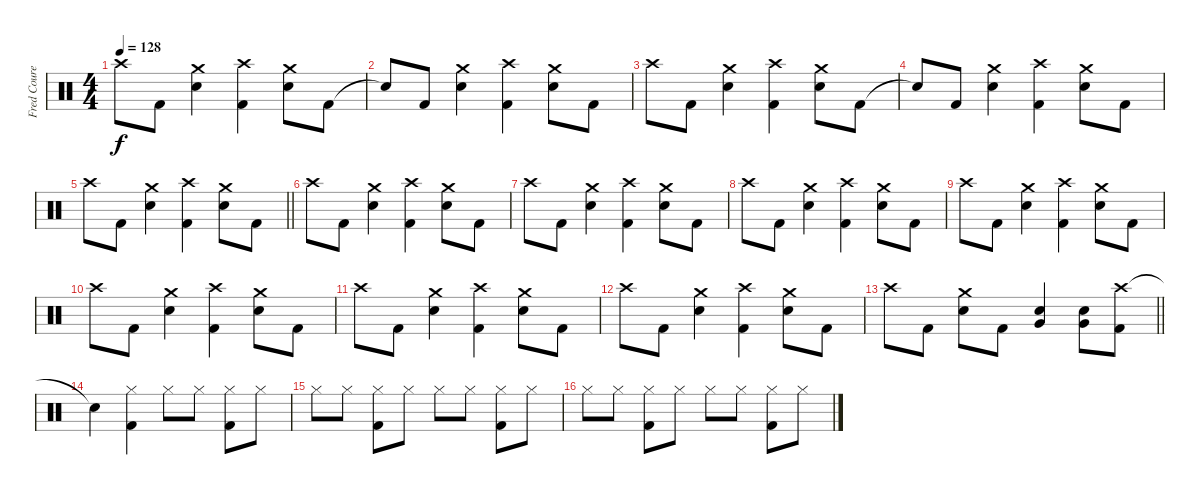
\track ("Fred Courey" "Fred Coure") {instrument percussion}
\staff {score}
\articulation defaults
\ts (4 4)
\tempo 128
\clef neutral
\ks c "Crash high (hit)".8{dy f} "Kick (hit) 2".8
("Crash medium (hit)" "Snare (hit) 2").4 ("Crash high (hit)" "Kick (hit) 2").4 ("Crash medium (hit)" "Snare (hit) 2").8 "Kick (hit) 2".8 |
"Snare (hit)"{t}.8 "Kick (hit) 2".8 ("Crash medium (hit)" "Snare (hit) 2").4 ("Crash high (hit)" "Kick (hit) 2").4 ("Crash medium (hit)" "Snare (hit) 2").8 "Kick (hit) 2".8 |
"Crash high (hit)".8 "Kick (hit) 2".8 ("Crash medium (hit)" "Snare (hit) 2").4 ("Crash high (hit)" "Kick (hit) 2").4 ("Crash medium (hit)" "Snare (hit) 2").8 "Kick (hit) 2".8 |
"Snare (hit)"{t}.8 "Kick (hit) 2".8 ("Crash medium (hit)" "Snare (hit) 2").4 ("Crash high (hit)" "Kick (hit) 2").4 ("Crash medium (hit)" "Snare (hit) 2").8 "Kick (hit) 2".8 |
\barLineRight lightlight "Crash high (hit)".8 "Kick (hit) 2".8
("Crash medium (hit)" "Snare (hit) 2").4 ("Crash high (hit)" "Kick (hit) 2").4 ("Crash medium (hit)" "Snare (hit) 2").8 "Kick (hit) 2".8 |
"Crash high (hit)".8 "Kick (hit) 2".8 ("Crash medium (hit)" "Snare (hit) 2").4 ("Crash high (hit)" "Kick (hit) 2").4 ("Crash medium (hit)" "Snare (hit) 2").8 "Kick (hit) 2".8 |
"Crash high (hit)".8 "Kick (hit) 2".8 ("Crash medium (hit)" "Snare (hit) 2").4 ("Crash high (hit)" "Kick (hit) 2").4 ("Crash medium (hit)" "Snare (hit) 2").8 "Kick (hit) 2".8 |
"Crash high (hit)".8 "Kick (hit) 2".8 ("Crash medium (hit)" "Snare (hit) 2").4 ("Crash high (hit)" "Kick (hit) 2").4 ("Crash medium (hit)" "Snare (hit) 2").8 "Kick (hit) 2".8 |
"Crash high (hit)".8 "Kick (hit) 2".8 ("Crash medium (hit)" "Snare (hit) 2").4 ("Crash high (hit)" "Kick (hit) 2").4 ("Crash medium (hit)" "Snare (hit) 2").8 "Kick (hit) 2".8 |
"Crash high (hit)".8 "Kick (hit) 2".8 ("Crash medium (hit)" "Snare (hit) 2").4 ("Crash high (hit)" "Kick (hit) 2").4 ("Crash medium (hit)" "Snare (hit) 2").8 "Kick (hit) 2".8 |
"Crash high (hit)".8 "Kick (hit) 2".8 ("Crash medium (hit)" "Snare (hit) 2").4 ("Crash high (hit)" "Kick (hit) 2").4 ("Crash medium (hit)" "Snare (hit) 2").8 "Kick (hit) 2".8 |
"Crash high (hit)".8 "Kick (hit) 2".8 ("Crash medium (hit)" "Snare (hit) 2").4 ("Crash high (hit)" "Kick (hit) 2").4 ("Crash medium (hit)" "Snare (hit) 2").8 "Kick (hit) 2".8 |
\barLineRight lightlight "Crash high (hit)".8 "Kick (hit) 2".8
("Crash medium (hit)" "Snare (hit) 2").8 "Kick (hit) 2".8 ("Very Low Tom (hit)" "Snare (hit) 2").4 ("Very Low Tom (hit)" "Snare (hit) 2").8 ("Crash high (hit)" "Kick (hit) 2").8 |
"Snare (hit)"{t}.4 ("Hi-Hat (closed)" "Kick (hit) 2").4 "Hi-Hat (closed)".8 "Hi-Hat (closed)".8 ("Hi-Hat (closed)" "Kick (hit) 2").8 "Hi-Hat (closed)".8 |
"Hi-Hat (closed)".8 "Hi-Hat (closed)".8 ("Hi-Hat (closed)" "Kick (hit) 2").8 "Hi-Hat (closed)".8 "Hi-Hat (closed)".8 "Hi-Hat (closed)".8 ("Hi-Hat (closed)" "Kick (hit) 2").8 "Hi-Hat (closed)".8 |
"Hi-Hat (closed)".8 "Hi-Hat (closed)".8 ("Hi-Hat (closed)" "Kick (hit) 2").8 "Hi-Hat (closed)".8 "Hi-Hat (closed)".8 "Hi-Hat (closed)".8 ("Hi-Hat (closed)" "Kick (hit) 2").8 "Hi-Hat (closed)".8
